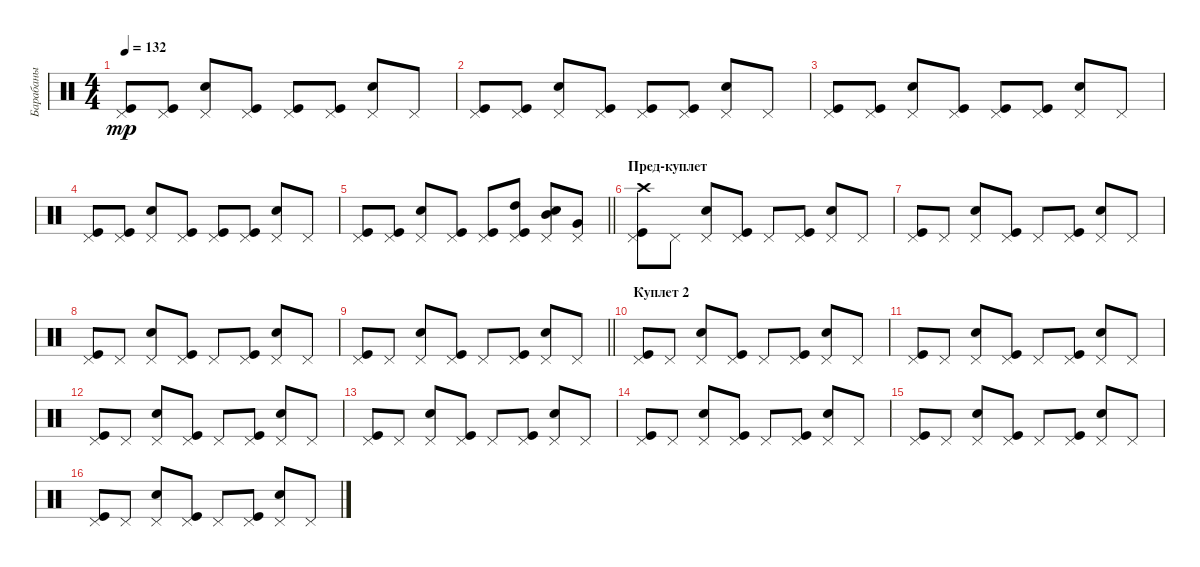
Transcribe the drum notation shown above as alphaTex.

\track ("Барабаны" "Барабаны") {instrument percussion}
\staff {score}
\articulation defaults
\ts (4 4)
\tempo 132
\clef neutral
\ks c
("Kick (hit)" "Pedal Hi-Hat (hit)").8{dy mp} ("Kick (hit)" "Pedal Hi-Hat (hit)").8 ("Snare (hit) 2" "Pedal Hi-Hat (hit)").8 ("Kick (hit)" "Pedal Hi-Hat (hit)").8 ("Kick (hit)" "Pedal Hi-Hat (hit)").8 ("Kick (hit)" "Pedal Hi-Hat (hit)").8 ("Snare (hit) 2" "Pedal Hi-Hat (hit)").8 "Pedal Hi-Hat (hit)".8 |
("Kick (hit)" "Pedal Hi-Hat (hit)").8 ("Kick (hit)" "Pedal Hi-Hat (hit)").8 ("Snare (hit) 2" "Pedal Hi-Hat (hit)").8 ("Kick (hit)" "Pedal Hi-Hat (hit)").8 ("Kick (hit)" "Pedal Hi-Hat (hit)").8 ("Kick (hit)" "Pedal Hi-Hat (hit)").8 ("Snare (hit) 2" "Pedal Hi-Hat (hit)").8 "Pedal Hi-Hat (hit)".8 |
("Kick (hit)" "Pedal Hi-Hat (hit)").8 ("Kick (hit)" "Pedal Hi-Hat (hit)").8 ("Snare (hit) 2" "Pedal Hi-Hat (hit)").8 ("Kick (hit)" "Pedal Hi-Hat (hit)").8 ("Kick (hit)" "Pedal Hi-Hat (hit)").8 ("Kick (hit)" "Pedal Hi-Hat (hit)").8 ("Snare (hit) 2" "Pedal Hi-Hat (hit)").8 "Pedal Hi-Hat (hit)".8 |
("Kick (hit)" "Pedal Hi-Hat (hit)").8 ("Kick (hit)" "Pedal Hi-Hat (hit)").8 ("Snare (hit) 2" "Pedal Hi-Hat (hit)").8 ("Kick (hit)" "Pedal Hi-Hat (hit)").8 ("Kick (hit)" "Pedal Hi-Hat (hit)").8 ("Kick (hit)" "Pedal Hi-Hat (hit)").8 ("Snare (hit) 2" "Pedal Hi-Hat (hit)").8 "Pedal Hi-Hat (hit)".8 |
\barLineRight lightlight
("Kick (hit)" "Pedal Hi-Hat (hit)").8 ("Kick (hit)" "Pedal Hi-Hat (hit)").8 ("Snare (hit) 2" "Pedal Hi-Hat (hit)").8 ("Kick (hit)" "Pedal Hi-Hat (hit)").8 ("Kick (hit)" "Pedal Hi-Hat (hit)").8 ("Kick (hit)" "Pedal Hi-Hat (hit)" "High Tom (hit)").8 ("Snare (hit) 2" "Pedal Hi-Hat (hit)" "Mid Tom (hit)").8 ("Pedal Hi-Hat (hit)" "Very Low Tom (hit)").8 |
\section ("" "Пред-куплет")
("Kick (hit)" "Pedal Hi-Hat (hit)" "Crash high (hit)").8 "Pedal Hi-Hat (hit)".8 ("Snare (hit) 2" "Pedal Hi-Hat (hit)").8 ("Kick (hit)" "Pedal Hi-Hat (hit)").8 "Pedal Hi-Hat (hit)".8 ("Kick (hit)" "Pedal Hi-Hat (hit)").8 ("Snare (hit) 2" "Pedal Hi-Hat (hit)").8 "Pedal Hi-Hat (hit)".8 |
("Kick (hit)" "Pedal Hi-Hat (hit)").8 "Pedal Hi-Hat (hit)".8 ("Snare (hit) 2" "Pedal Hi-Hat (hit)").8 ("Kick (hit)" "Pedal Hi-Hat (hit)").8 "Pedal Hi-Hat (hit)".8 ("Kick (hit)" "Pedal Hi-Hat (hit)").8 ("Snare (hit) 2" "Pedal Hi-Hat (hit)").8 "Pedal Hi-Hat (hit)".8 |
("Kick (hit)" "Pedal Hi-Hat (hit)").8 "Pedal Hi-Hat (hit)".8 ("Snare (hit) 2" "Pedal Hi-Hat (hit)").8 ("Kick (hit)" "Pedal Hi-Hat (hit)").8 "Pedal Hi-Hat (hit)".8 ("Kick (hit)" "Pedal Hi-Hat (hit)").8 ("Snare (hit) 2" "Pedal Hi-Hat (hit)").8 "Pedal Hi-Hat (hit)".8 |
\barLineRight lightlight
("Kick (hit)" "Pedal Hi-Hat (hit)").8 "Pedal Hi-Hat (hit)".8 ("Snare (hit) 2" "Pedal Hi-Hat (hit)").8 ("Kick (hit)" "Pedal Hi-Hat (hit)").8 "Pedal Hi-Hat (hit)".8 ("Kick (hit)" "Pedal Hi-Hat (hit)").8 ("Snare (hit) 2" "Pedal Hi-Hat (hit)").8 "Pedal Hi-Hat (hit)".8 |
\section ("" "Куплет 2")
("Kick (hit)" "Pedal Hi-Hat (hit)").8 "Pedal Hi-Hat (hit)".8 ("Snare (hit) 2" "Pedal Hi-Hat (hit)").8 ("Kick (hit)" "Pedal Hi-Hat (hit)").8 "Pedal Hi-Hat (hit)".8 ("Kick (hit)" "Pedal Hi-Hat (hit)").8 ("Snare (hit) 2" "Pedal Hi-Hat (hit)").8 "Pedal Hi-Hat (hit)".8 |
("Kick (hit)" "Pedal Hi-Hat (hit)").8 "Pedal Hi-Hat (hit)".8 ("Snare (hit) 2" "Pedal Hi-Hat (hit)").8 ("Kick (hit)" "Pedal Hi-Hat (hit)").8 "Pedal Hi-Hat (hit)".8 ("Kick (hit)" "Pedal Hi-Hat (hit)").8 ("Snare (hit) 2" "Pedal Hi-Hat (hit)").8 "Pedal Hi-Hat (hit)".8 |
("Kick (hit)" "Pedal Hi-Hat (hit)").8 "Pedal Hi-Hat (hit)".8 ("Snare (hit) 2" "Pedal Hi-Hat (hit)").8 ("Kick (hit)" "Pedal Hi-Hat (hit)").8 "Pedal Hi-Hat (hit)".8 ("Kick (hit)" "Pedal Hi-Hat (hit)").8 ("Snare (hit) 2" "Pedal Hi-Hat (hit)").8 "Pedal Hi-Hat (hit)".8 |
("Kick (hit)" "Pedal Hi-Hat (hit)").8 "Pedal Hi-Hat (hit)".8 ("Snare (hit) 2" "Pedal Hi-Hat (hit)").8 ("Kick (hit)" "Pedal Hi-Hat (hit)").8 "Pedal Hi-Hat (hit)".8 ("Kick (hit)" "Pedal Hi-Hat (hit)").8 ("Snare (hit) 2" "Pedal Hi-Hat (hit)").8 "Pedal Hi-Hat (hit)".8 |
("Kick (hit)" "Pedal Hi-Hat (hit)").8 "Pedal Hi-Hat (hit)".8 ("Snare (hit) 2" "Pedal Hi-Hat (hit)").8 ("Kick (hit)" "Pedal Hi-Hat (hit)").8 "Pedal Hi-Hat (hit)".8 ("Kick (hit)" "Pedal Hi-Hat (hit)").8 ("Snare (hit) 2" "Pedal Hi-Hat (hit)").8 "Pedal Hi-Hat (hit)".8 |
("Kick (hit)" "Pedal Hi-Hat (hit)").8 "Pedal Hi-Hat (hit)".8 ("Snare (hit) 2" "Pedal Hi-Hat (hit)").8 ("Kick (hit)" "Pedal Hi-Hat (hit)").8 "Pedal Hi-Hat (hit)".8 ("Kick (hit)" "Pedal Hi-Hat (hit)").8 ("Snare (hit) 2" "Pedal Hi-Hat (hit)").8 "Pedal Hi-Hat (hit)".8 |
("Kick (hit)" "Pedal Hi-Hat (hit)").8 "Pedal Hi-Hat (hit)".8 ("Snare (hit) 2" "Pedal Hi-Hat (hit)").8 ("Kick (hit)" "Pedal Hi-Hat (hit)").8 "Pedal Hi-Hat (hit)".8 ("Kick (hit)" "Pedal Hi-Hat (hit)").8 ("Snare (hit) 2" "Pedal Hi-Hat (hit)").8 "Pedal Hi-Hat (hit)".8
